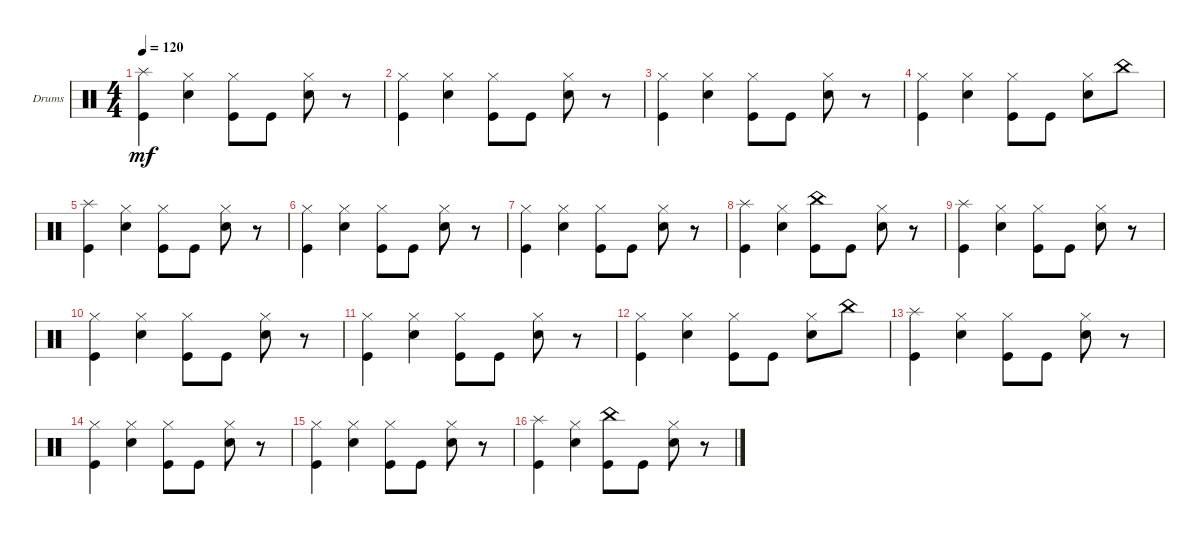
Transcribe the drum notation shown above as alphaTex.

\bracketExtendMode groupsimilarinstruments
\firstSystemTrackNameOrientation horizontal
\otherSystemsTrackNameOrientation horizontal
\track ("Drumkit" "Drums") {instrument percussion}
\staff {score}
\articulation defaults
\ts (4 4)
\tempo 120
\clef neutral
\ks c
("Splash (hit)" "Kick (hit)").4{dy mf} ("Hi-Hat (closed)" "Snare (hit) 2").4 ("Hi-Hat (closed)" "Kick (hit)").8 "Kick (hit)".8 ("Hi-Hat (closed)" "Snare (hit) 2").8 r.8 |
("Kick (hit)" "Hi-Hat (closed)").4 ("Hi-Hat (closed)" "Snare (hit) 2").4 ("Hi-Hat (closed)" "Kick (hit)").8 "Kick (hit)".8 ("Hi-Hat (closed)" "Snare (hit) 2").8 r.8 |
("Kick (hit)" "Hi-Hat (closed)").4 ("Hi-Hat (closed)" "Snare (hit) 2").4 ("Hi-Hat (closed)" "Kick (hit)").8 "Kick (hit)".8 ("Hi-Hat (closed)" "Snare (hit) 2").8 r.8 |
("Kick (hit)" "Hi-Hat (closed)").4 ("Hi-Hat (closed)" "Snare (hit) 2").4 ("Hi-Hat (closed)" "Kick (hit)").8 "Kick (hit)".8 ("Hi-Hat (closed)" "Snare (hit) 2").8 "China (hit)".8 |
("Splash (hit)" "Kick (hit)").4 ("Hi-Hat (closed)" "Snare (hit) 2").4 ("Hi-Hat (closed)" "Kick (hit)").8 "Kick (hit)".8 ("Hi-Hat (closed)" "Snare (hit) 2").8 r.8 |
("Kick (hit)" "Hi-Hat (closed)").4 ("Hi-Hat (closed)" "Snare (hit) 2").4 ("Hi-Hat (closed)" "Kick (hit)").8 "Kick (hit)".8 ("Hi-Hat (closed)" "Snare (hit) 2").8 r.8 |
("Kick (hit)" "Hi-Hat (closed)").4 ("Hi-Hat (closed)" "Snare (hit) 2").4 ("Hi-Hat (closed)" "Kick (hit)").8 "Kick (hit)".8 ("Hi-Hat (closed)" "Snare (hit) 2").8 r.8 |
("Kick (hit)" "Splash (hit)").4 ("Hi-Hat (closed)" "Snare (hit) 2").4 ("Kick (hit)" "China (hit)").8 "Kick (hit)".8 ("Hi-Hat (closed)" "Snare (hit) 2").8 r.8 |
("Splash (hit)" "Kick (hit)").4 ("Hi-Hat (closed)" "Snare (hit) 2").4 ("Hi-Hat (closed)" "Kick (hit)").8 "Kick (hit)".8 ("Hi-Hat (closed)" "Snare (hit) 2").8 r.8 |
("Kick (hit)" "Hi-Hat (closed)").4 ("Hi-Hat (closed)" "Snare (hit) 2").4 ("Hi-Hat (closed)" "Kick (hit)").8 "Kick (hit)".8 ("Hi-Hat (closed)" "Snare (hit) 2").8 r.8 |
("Kick (hit)" "Hi-Hat (closed)").4 ("Hi-Hat (closed)" "Snare (hit) 2").4 ("Hi-Hat (closed)" "Kick (hit)").8 "Kick (hit)".8 ("Hi-Hat (closed)" "Snare (hit) 2").8 r.8 |
("Kick (hit)" "Hi-Hat (closed)").4 ("Hi-Hat (closed)" "Snare (hit) 2").4 ("Hi-Hat (closed)" "Kick (hit)").8 "Kick (hit)".8 ("Hi-Hat (closed)" "Snare (hit) 2").8 "China (hit)".8 |
("Splash (hit)" "Kick (hit)").4 ("Hi-Hat (closed)" "Snare (hit) 2").4 ("Hi-Hat (closed)" "Kick (hit)").8 "Kick (hit)".8 ("Hi-Hat (closed)" "Snare (hit) 2").8 r.8 |
("Kick (hit)" "Hi-Hat (closed)").4 ("Hi-Hat (closed)" "Snare (hit) 2").4 ("Hi-Hat (closed)" "Kick (hit)").8 "Kick (hit)".8 ("Hi-Hat (closed)" "Snare (hit) 2").8 r.8 |
("Kick (hit)" "Hi-Hat (closed)").4 ("Hi-Hat (closed)" "Snare (hit) 2").4 ("Hi-Hat (closed)" "Kick (hit)").8 "Kick (hit)".8 ("Hi-Hat (closed)" "Snare (hit) 2").8 r.8 |
("Kick (hit)" "Splash (hit)").4 ("Hi-Hat (closed)" "Snare (hit) 2").4 ("Kick (hit)" "China (hit)").8 "Kick (hit)".8 ("Hi-Hat (closed)" "Snare (hit) 2").8 r.8
